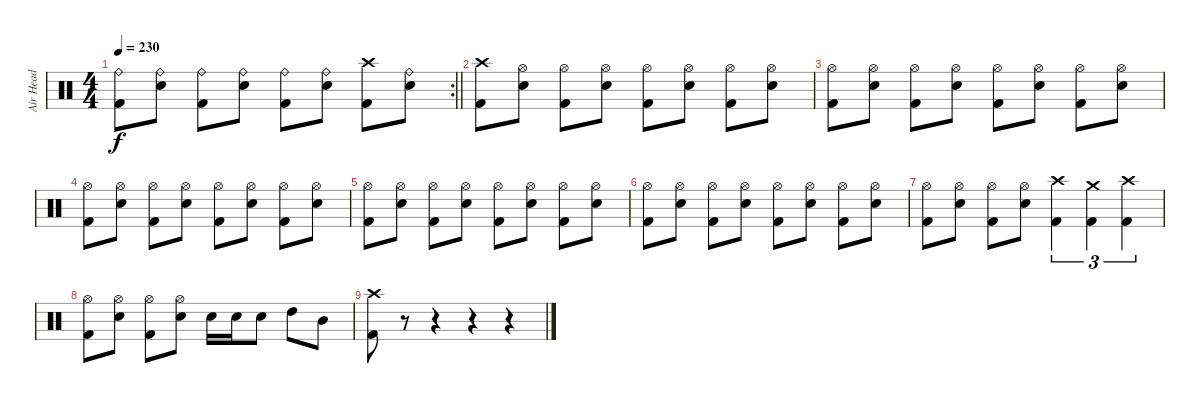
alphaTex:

\track ("Air Head" "Air Head") {instrument percussion}
\staff {score}
\articulation defaults
\rc 2
\ts (4 4)
\tempo 230
\clef neutral
\barLineRight lightlight
\ks c
("Ride (bell)" "Kick (hit) 2").8{dy f} ("Ride (bell)" "Snare (hit) 2").8 ("Ride (bell)" "Kick (hit) 2").8 ("Ride (bell)" "Snare (hit) 2").8 ("Ride (bell)" "Kick (hit) 2").8 ("Ride (bell)" "Snare (hit) 2").8 ("Crash high (hit)" "Kick (hit) 2").8 ("Ride (bell)" "Snare (hit) 2").8 |
("Crash high (hit)" "Kick (hit) 2").8 ("Hi-Hat (open)" "Snare (hit) 2").8 ("Hi-Hat (open)" "Kick (hit) 2").8 ("Hi-Hat (open)" "Snare (hit) 2").8 ("Hi-Hat (open)" "Kick (hit) 2").8 ("Hi-Hat (open)" "Snare (hit) 2").8 ("Hi-Hat (open)" "Kick (hit) 2").8 ("Hi-Hat (open)" "Snare (hit) 2").8 |
("Hi-Hat (open)" "Kick (hit) 2").8 ("Hi-Hat (open)" "Snare (hit) 2").8 ("Hi-Hat (open)" "Kick (hit) 2").8 ("Hi-Hat (open)" "Snare (hit) 2").8 ("Hi-Hat (open)" "Kick (hit) 2").8 ("Hi-Hat (open)" "Snare (hit) 2").8 ("Hi-Hat (open)" "Kick (hit) 2").8 ("Hi-Hat (open)" "Snare (hit) 2").8 |
("Hi-Hat (open)" "Kick (hit) 2").8 ("Hi-Hat (open)" "Snare (hit) 2").8 ("Hi-Hat (open)" "Kick (hit) 2").8 ("Hi-Hat (open)" "Snare (hit) 2").8 ("Hi-Hat (open)" "Kick (hit) 2").8 ("Hi-Hat (open)" "Snare (hit) 2").8 ("Hi-Hat (open)" "Kick (hit) 2").8 ("Hi-Hat (open)" "Snare (hit) 2").8 |
("Hi-Hat (open)" "Kick (hit) 2").8 ("Hi-Hat (open)" "Snare (hit) 2").8 ("Hi-Hat (open)" "Kick (hit) 2").8 ("Hi-Hat (open)" "Snare (hit) 2").8 ("Hi-Hat (open)" "Kick (hit) 2").8 ("Hi-Hat (open)" "Snare (hit) 2").8 ("Hi-Hat (open)" "Kick (hit) 2").8 ("Hi-Hat (open)" "Snare (hit) 2").8 |
("Hi-Hat (open)" "Kick (hit) 2").8 ("Hi-Hat (open)" "Snare (hit) 2").8 ("Hi-Hat (open)" "Kick (hit) 2").8 ("Hi-Hat (open)" "Snare (hit) 2").8 ("Hi-Hat (open)" "Kick (hit) 2").8 ("Hi-Hat (open)" "Snare (hit) 2").8 ("Hi-Hat (open)" "Kick (hit) 2").8 ("Hi-Hat (open)" "Snare (hit) 2").8 |
("Hi-Hat (open)" "Kick (hit) 2").8 ("Hi-Hat (open)" "Snare (hit) 2").8 ("Hi-Hat (open)" "Kick (hit) 2").8 ("Hi-Hat (open)" "Snare (hit) 2").8 ("Crash high (hit)" "Kick (hit) 2").4{tu (3 2)} ("Crash medium (hit)" "Kick (hit) 2").4{tu (3 2)} ("Crash high (hit)" "Kick (hit) 2").4{tu (3 2)} |
("Hi-Hat (open)" "Kick (hit) 2").8 ("Hi-Hat (open)" "Snare (hit) 2").8 ("Hi-Hat (open)" "Kick (hit) 2").8 ("Hi-Hat (open)" "Snare (hit) 2").8 "Snare (hit) 2".16 "Snare (hit) 2".16 "Snare (hit) 2".8 "High Tom (hit)".8 "Mid Tom (hit)".8 |
("Crash high (hit)" "Kick (hit) 2").8 r.8 r.4 r.4 r.4
